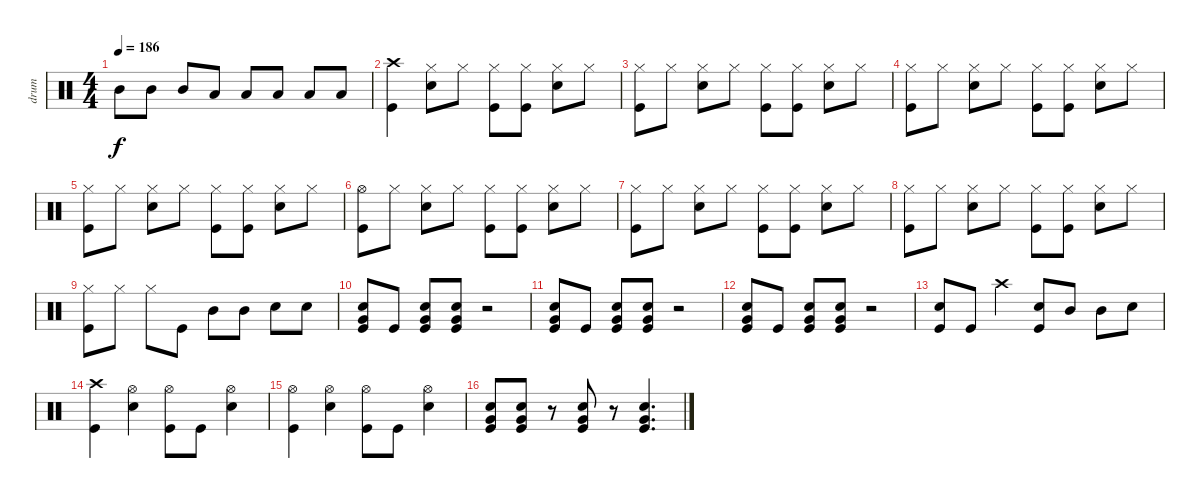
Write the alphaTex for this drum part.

\track ("drum" "drum") {instrument percussion}
\staff {score}
\articulation defaults
\ts (4 4)
\tempo 186
\clef neutral
\ks c "Mid Tom (hit)".8{dy f} "Mid Tom (hit)".8 "Mid Tom (hit)".8 "Low Tom (hit)".8 "Low Tom (hit)".8 "Low Floor Tom (hit)".8 "Low Floor Tom (hit)".8 "Low Floor Tom (hit)".8
|
("Crash high (hit)" "Kick (hit)").4 ("Hi-Hat (closed)" "Snare (hit) 2").8 "Hi-Hat (closed)".8 ("Hi-Hat (closed)" "Kick (hit)").8 ("Hi-Hat (closed)" "Kick (hit)").8 ("Hi-Hat (closed)" "Snare (hit) 2").8 "Hi-Hat (closed)".8 |
("Hi-Hat (closed)" "Kick (hit)").8 "Hi-Hat (closed)".8 ("Hi-Hat (closed)" "Snare (hit) 2").8 "Hi-Hat (closed)".8 ("Hi-Hat (closed)" "Kick (hit)").8 ("Hi-Hat (closed)" "Kick (hit)").8 ("Hi-Hat (closed)" "Snare (hit) 2").8 "Hi-Hat (closed)".8 |
("Hi-Hat (closed)" "Kick (hit)").8 "Hi-Hat (closed)".8 ("Hi-Hat (closed)" "Snare (hit) 2").8 "Hi-Hat (closed)".8 ("Hi-Hat (closed)" "Kick (hit)").8 ("Hi-Hat (closed)" "Kick (hit)").8 ("Hi-Hat (closed)" "Snare (hit) 2").8 "Hi-Hat (closed)".8 |
("Hi-Hat (closed)" "Kick (hit)").8 "Hi-Hat (closed)".8 ("Hi-Hat (closed)" "Snare (hit) 2").8 "Hi-Hat (closed)".8 ("Hi-Hat (closed)" "Kick (hit)").8 ("Hi-Hat (closed)" "Kick (hit)").8 ("Hi-Hat (closed)" "Snare (hit) 2").8 "Hi-Hat (closed)".8 |
("Hi-Hat (open)" "Kick (hit)").8 "Hi-Hat (closed)".8 ("Hi-Hat (closed)" "Snare (hit) 2").8 "Hi-Hat (closed)".8 ("Hi-Hat (closed)" "Kick (hit)").8 ("Hi-Hat (closed)" "Kick (hit)").8 ("Hi-Hat (closed)" "Snare (hit) 2").8 "Hi-Hat (closed)".8 |
("Hi-Hat (closed)" "Kick (hit)").8 "Hi-Hat (closed)".8 ("Hi-Hat (closed)" "Snare (hit) 2").8 "Hi-Hat (closed)".8 ("Hi-Hat (closed)" "Kick (hit)").8 ("Hi-Hat (closed)" "Kick (hit)").8 ("Hi-Hat (closed)" "Snare (hit) 2").8 "Hi-Hat (closed)".8 |
("Hi-Hat (closed)" "Kick (hit)").8 "Hi-Hat (closed)".8 ("Hi-Hat (closed)" "Snare (hit) 2").8 "Hi-Hat (closed)".8 ("Hi-Hat (closed)" "Kick (hit)").8 ("Hi-Hat (closed)" "Kick (hit)").8 ("Hi-Hat (closed)" "Snare (hit) 2").8 "Hi-Hat (closed)".8 |
("Hi-Hat (closed)" "Kick (hit)").8 "Hi-Hat (closed)".8 "Hi-Hat (closed)".8 "Kick (hit)".8 "Mid Tom (hit)".8 "Mid Tom (hit)".8 "Snare (hit) 2".8 "Snare (hit) 2".8 |
("Snare (hit) 2" "Very Low Tom (hit)" "Kick (hit)").8 "Kick (hit)".8 ("Snare (hit) 2" "Very Low Tom (hit)" "Kick (hit)").8 ("Snare (hit) 2" "Very Low Tom (hit)" "Kick (hit)").8 r.2 |
("Snare (hit) 2" "Very Low Tom (hit)" "Kick (hit)").8 "Kick (hit)".8 ("Snare (hit) 2" "Very Low Tom (hit)" "Kick (hit)").8 ("Snare (hit) 2" "Very Low Tom (hit)" "Kick (hit)").8 r.2 |
("Snare (hit) 2" "Very Low Tom (hit)" "Kick (hit)").8 "Kick (hit)".8 ("Snare (hit) 2" "Very Low Tom (hit)" "Kick (hit)").8 ("Snare (hit) 2" "Very Low Tom (hit)" "Kick (hit)").8 r.2 |
("Snare (hit) 2" "Kick (hit)").8 "Kick (hit)".8 "Crash high (hit)".4 ("Snare (hit) 2" "Kick (hit)").8 "Mid Tom (hit)".8 "Mid Tom (hit)".8 "Snare (hit) 2".8 |
("Crash high (hit)" "Kick (hit)").4 ("Hi-Hat (open)" "Snare (hit) 2").4 ("Hi-Hat (open)" "Kick (hit)").8 "Kick (hit)".8 ("Hi-Hat (open)" "Snare (hit) 2").4 |
("Hi-Hat (open)" "Kick (hit)").4 ("Hi-Hat (open)" "Snare (hit) 2").4 ("Hi-Hat (open)" "Kick (hit)").8 "Kick (hit)".8 ("Hi-Hat (open)" "Snare (hit) 2").4 |
("Snare (hit) 2" "Very Low Tom (hit)" "Kick (hit)").8 ("Snare (hit) 2" "Very Low Tom (hit)" "Kick (hit)").8 r.8 ("Snare (hit) 2" "Very Low Tom (hit)" "Kick (hit)").8 r.8 ("Snare (hit) 2" "Very Low Tom (hit)" "Kick (hit)").4{d}
